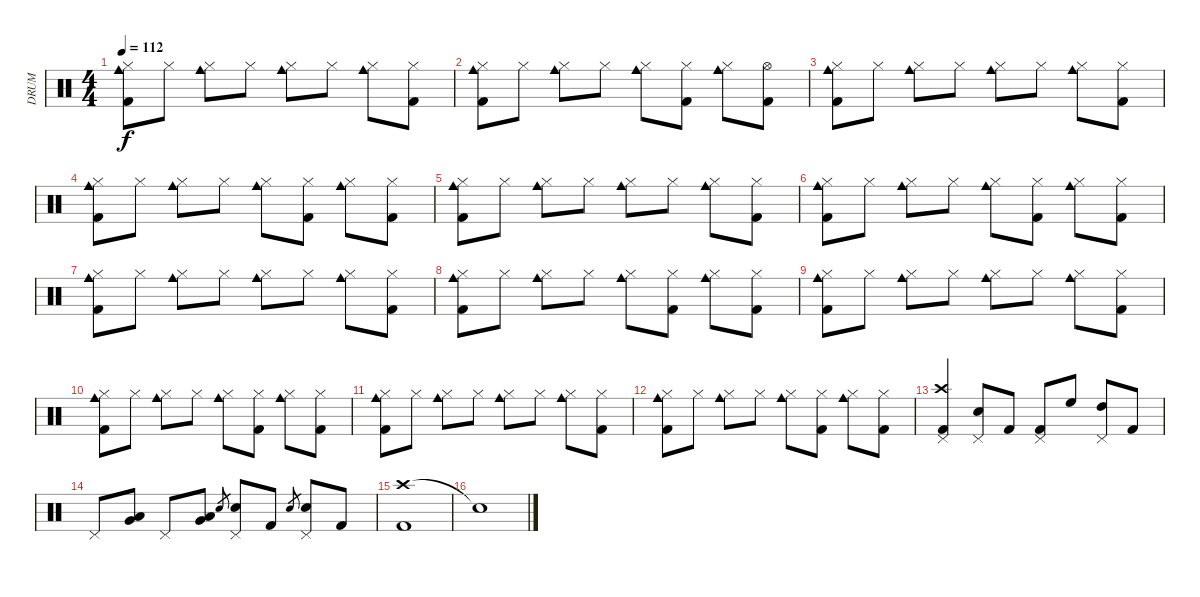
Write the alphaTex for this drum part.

\track ("DRUM" "DRUM") {instrument percussion}
\staff {score}
\articulation defaults
\ts (4 4)
\tempo 112
\clef neutral
\ks c
("Cowbell medium (hit)" "Hi-Hat (closed)" "Kick (hit) 2").8{dy f} "Hi-Hat (closed)".8 ("Cowbell medium (hit)" "Hi-Hat (closed)").8 "Hi-Hat (closed)".8 ("Cowbell medium (hit)" "Hi-Hat (closed)").8 "Hi-Hat (closed)".8 ("Cowbell medium (hit)" "Hi-Hat (closed)").8 ("Hi-Hat (closed)" "Kick (hit) 2").8 |
("Cowbell medium (hit)" "Hi-Hat (closed)" "Kick (hit) 2").8 "Hi-Hat (closed)".8 ("Cowbell medium (hit)" "Hi-Hat (closed)").8 "Hi-Hat (closed)".8 ("Cowbell medium (hit)" "Hi-Hat (closed)").8 ("Hi-Hat (closed)" "Kick (hit) 2").8 ("Cowbell medium (hit)" "Hi-Hat (closed)").8 ("Hi-Hat (open)" "Kick (hit) 2").8 |
("Cowbell medium (hit)" "Hi-Hat (closed)" "Kick (hit) 2").8 "Hi-Hat (closed)".8 ("Cowbell medium (hit)" "Hi-Hat (closed)").8 "Hi-Hat (closed)".8 ("Cowbell medium (hit)" "Hi-Hat (closed)").8 "Hi-Hat (closed)".8 ("Cowbell medium (hit)" "Hi-Hat (closed)").8 ("Hi-Hat (closed)" "Kick (hit) 2").8 |
("Cowbell medium (hit)" "Hi-Hat (closed)" "Kick (hit) 2").8 "Hi-Hat (closed)".8 ("Cowbell medium (hit)" "Hi-Hat (closed)").8 "Hi-Hat (closed)".8 ("Cowbell medium (hit)" "Hi-Hat (closed)").8 ("Hi-Hat (closed)" "Kick (hit) 2").8 ("Cowbell medium (hit)" "Hi-Hat (closed)").8 ("Hi-Hat (closed)" "Kick (hit) 2").8 |
("Cowbell medium (hit)" "Hi-Hat (closed)" "Kick (hit) 2").8 "Hi-Hat (closed)".8 ("Cowbell medium (hit)" "Hi-Hat (closed)").8 "Hi-Hat (closed)".8 ("Cowbell medium (hit)" "Hi-Hat (closed)").8 "Hi-Hat (closed)".8 ("Cowbell medium (hit)" "Hi-Hat (closed)").8 ("Hi-Hat (closed)" "Kick (hit) 2").8 |
("Cowbell medium (hit)" "Hi-Hat (closed)" "Kick (hit) 2").8 "Hi-Hat (closed)".8 ("Cowbell medium (hit)" "Hi-Hat (closed)").8 "Hi-Hat (closed)".8 ("Cowbell medium (hit)" "Hi-Hat (closed)").8 ("Hi-Hat (closed)" "Kick (hit) 2").8 ("Cowbell medium (hit)" "Hi-Hat (closed)").8 ("Hi-Hat (closed)" "Kick (hit) 2").8 |
("Cowbell medium (hit)" "Hi-Hat (closed)" "Kick (hit) 2").8 "Hi-Hat (closed)".8 ("Cowbell medium (hit)" "Hi-Hat (closed)").8 "Hi-Hat (closed)".8 ("Cowbell medium (hit)" "Hi-Hat (closed)").8 "Hi-Hat (closed)".8 ("Cowbell medium (hit)" "Hi-Hat (closed)").8 ("Hi-Hat (closed)" "Kick (hit) 2").8 |
("Cowbell medium (hit)" "Hi-Hat (closed)" "Kick (hit) 2").8 "Hi-Hat (closed)".8 ("Cowbell medium (hit)" "Hi-Hat (closed)").8 "Hi-Hat (closed)".8 ("Cowbell medium (hit)" "Hi-Hat (closed)").8 ("Hi-Hat (closed)" "Kick (hit) 2").8 ("Cowbell medium (hit)" "Hi-Hat (closed)").8 ("Hi-Hat (closed)" "Kick (hit) 2").8 |
("Cowbell medium (hit)" "Hi-Hat (closed)" "Kick (hit) 2").8 "Hi-Hat (closed)".8 ("Cowbell medium (hit)" "Hi-Hat (closed)").8 "Hi-Hat (closed)".8 ("Cowbell medium (hit)" "Hi-Hat (closed)").8 "Hi-Hat (closed)".8 ("Cowbell medium (hit)" "Hi-Hat (closed)").8 ("Hi-Hat (closed)" "Kick (hit) 2").8 |
("Cowbell medium (hit)" "Hi-Hat (closed)" "Kick (hit) 2").8 "Hi-Hat (closed)".8 ("Cowbell medium (hit)" "Hi-Hat (closed)").8 "Hi-Hat (closed)".8 ("Cowbell medium (hit)" "Hi-Hat (closed)").8 ("Hi-Hat (closed)" "Kick (hit) 2").8 ("Cowbell medium (hit)" "Hi-Hat (closed)").8 ("Hi-Hat (closed)" "Kick (hit) 2").8 |
("Cowbell medium (hit)" "Hi-Hat (closed)" "Kick (hit) 2").8 "Hi-Hat (closed)".8 ("Cowbell medium (hit)" "Hi-Hat (closed)").8 "Hi-Hat (closed)".8 ("Cowbell medium (hit)" "Hi-Hat (closed)").8 "Hi-Hat (closed)".8 ("Cowbell medium (hit)" "Hi-Hat (closed)").8 ("Hi-Hat (closed)" "Kick (hit) 2").8 |
("Cowbell medium (hit)" "Hi-Hat (closed)" "Kick (hit) 2").8 "Hi-Hat (closed)".8 ("Cowbell medium (hit)" "Hi-Hat (closed)").8 "Hi-Hat (closed)".8 ("Cowbell medium (hit)" "Hi-Hat (closed)").8 ("Hi-Hat (closed)" "Kick (hit) 2").8 ("Cowbell medium (hit)" "Hi-Hat (closed)").8 ("Hi-Hat (closed)" "Kick (hit) 2").8 |
("Crash high (hit)" "Pedal Hi-Hat (hit)" "Kick (hit) 2").4 ("Snare (hit) 2" "Pedal Hi-Hat (hit)").8 "Kick (hit) 2".8 ("Pedal Hi-Hat (hit)" "Kick (hit) 2").8 "High Floor Tom (hit)".8 ("High Tom (hit)" "Pedal Hi-Hat (hit)").8 "Kick (hit) 2".8 |
"Pedal Hi-Hat (hit)".8 ("Low Tom (hit)" "Very Low Tom (hit)").8 "Pedal Hi-Hat (hit)".8 ("Very Low Tom (hit)" "Low Floor Tom (hit)").8 "Snare (hit) 2".8{gr} ("Snare (hit) 2" "Pedal Hi-Hat (hit)").8 "Kick (hit) 2".8 "Snare (hit) 2".8{gr} ("Snare (hit) 2" "Pedal Hi-Hat (hit)").8 "Kick (hit) 2".8 |
("Crash high (hit)" "Kick (hit) 2").1 |
"Snare (hit)"{t}.1
